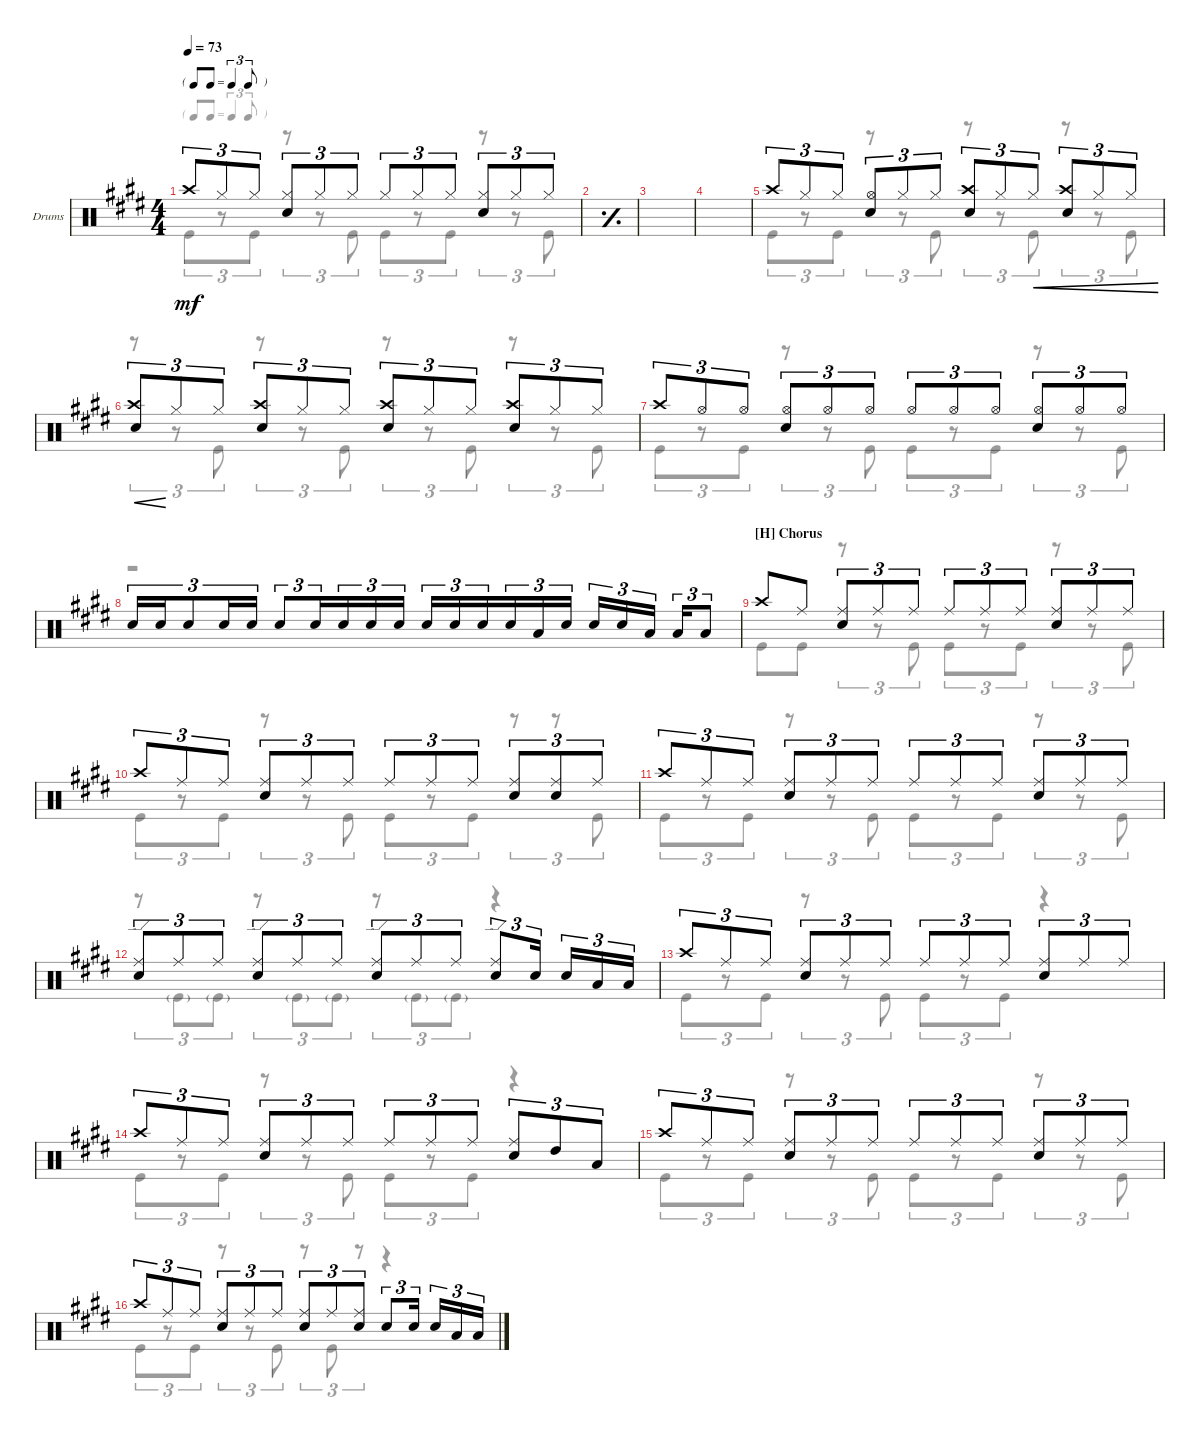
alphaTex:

\defaultSystemsLayout 4
\bracketExtendMode groupsimilarinstruments
\firstSystemTrackNameOrientation horizontal
\otherSystemsTrackNameOrientation horizontal
\track ("Drumkit" "Drums") {instrument percussion}
\staff {score}
\articulation defaults
\voice
\ts (4 4)
\tf triplet8th
\tempo 73
\clef neutral
\ks e "Crash high (hit)".8{tu (3 2) dy mf} "Hi-Hat (closed)".8{tu (3 2)} "Hi-Hat (closed)".8{tu (3 2)}
("Hi-Hat (closed)" "Snare (hit) 2").8{tu (3 2)} "Hi-Hat (closed)".8{tu (3 2)} "Hi-Hat (closed)".8{tu (3 2)} "Hi-Hat (closed)".8{tu (3 2)} "Hi-Hat (closed)".8{tu (3 2)} "Hi-Hat (closed)".8{tu (3 2)} ("Hi-Hat (closed)" "Snare (hit) 2").8{tu (3 2)} "Hi-Hat (closed)".8{tu (3 2)} "Hi-Hat (closed)".8{tu (3 2)} |
\simile simple
|
|
|
\simile none "Crash high (hit)".8{tu (3 2)} "Hi-Hat (closed)".8{tu (3 2)} "Hi-Hat (closed)".8{tu (3 2)}
("Hi-Hat (open)" "Snare (hit) 2").8{tu (3 2)} "Hi-Hat (closed)".8{tu (3 2)} "Hi-Hat (closed)".8{tu (3 2)} ("Crash high (hit)" "Snare (hit) 2").8{tu (3 2)} "Hi-Hat (closed)".8{tu (3 2)} "Hi-Hat (closed)".8{tu (3 2) cre} ("Crash high (hit)" "Snare (hit) 2").8{tu (3 2) cre} "Hi-Hat (closed)".8{tu (3 2) cre} "Hi-Hat (closed)".8{tu (3 2) cre} |
("Crash high (hit)" "Snare (hit) 2").8{tu (3 2) cre} "Hi-Hat (closed)".8{tu (3 2)} "Hi-Hat (closed)".8{tu (3 2)} ("Crash high (hit)" "Snare (hit) 2").8{tu (3 2)} "Hi-Hat (closed)".8{tu (3 2)} "Hi-Hat (closed)".8{tu (3 2)} ("Crash high (hit)" "Snare (hit) 2").8{tu (3 2)} "Hi-Hat (closed)".8{tu (3 2)} "Hi-Hat (closed)".8{tu (3 2)} ("Crash high (hit)" "Snare (hit) 2").8{tu (3 2)} "Hi-Hat (closed)".8{tu (3 2)} "Hi-Hat (closed)".8{tu (3 2)} |
"Crash high (hit)".8{tu (3 2)} "Hi-Hat (open)".8{tu (3 2)} "Hi-Hat (open)".8{tu (3 2)} ("Hi-Hat (open)" "Snare (hit) 2").8{tu (3 2)} "Hi-Hat (open)".8{tu (3 2)} "Hi-Hat (open)".8{tu (3 2)} "Hi-Hat (open)".8{tu (3 2)} "Hi-Hat (open)".8{tu (3 2)} "Hi-Hat (open)".8{tu (3 2)} ("Hi-Hat (open)" "Snare (hit) 2").8{tu (3 2)} "Hi-Hat (open)".8{tu (3 2)} "Hi-Hat (open)".8{tu (3 2)} |
"Snare (hit) 2".16{tu (3 2) beam merge} "Snare (hit) 2".16{tu (3 2) beam merge} "Snare (hit) 2".8{tu (3 2) beam merge} "Snare (hit) 2".16{tu (3 2) beam merge} "Snare (hit) 2".16{tu (3 2) beam split} "Snare (hit) 2".8{tu (3 2) beam merge} "Snare (hit) 2".16{tu (3 2) beam merge} "Snare (hit) 2".16{tu (3 2) beam merge} "Snare (hit) 2".16{tu (3 2) beam merge} "Snare (hit) 2".16{tu (3 2)} "Snare (hit) 2".16{tu (3 2) beam merge} "Snare (hit) 2".16{tu (3 2) beam merge} "Snare (hit) 2".16{tu (3 2) beam merge} "Snare (hit) 2".16{tu (3 2) beam merge} "Low Tom (hit)".16{tu (3 2) beam merge} "Snare (hit) 2".16{tu (3 2)} "Snare (hit) 2".16{tu (3 2)} "Snare (hit) 2".16{tu (3 2)} "Low Tom (hit)".16{tu (3 2)} "Low Tom (hit)".16{tu (3 2)} "Low Tom (hit)".8{tu (3 2)} |
\section ("H" "Chorus")
"Crash high (hit)".8 "Ride (middle)".8 ("Ride (middle)" "Snare (hit) 2").8{tu (3 2)} "Ride (middle)".8{tu (3 2)} "Ride (middle)".8{tu (3 2)} "Ride (middle)".8{tu (3 2)} "Ride (middle)".8{tu (3 2)} "Ride (middle)".8{tu (3 2)} ("Ride (middle)" "Snare (hit) 2").8{tu (3 2)} "Ride (middle)".8{tu (3 2)} "Ride (middle)".8{tu (3 2)} |
"Crash high (hit)".8{tu (3 2)} "Ride (middle)".8{tu (3 2)} "Ride (middle)".8{tu (3 2)} ("Ride (middle)" "Snare (hit) 2").8{tu (3 2)} "Ride (middle)".8{tu (3 2)} "Ride (middle)".8{tu (3 2)} "Ride (middle)".8{tu (3 2)} "Ride (middle)".8{tu (3 2)} "Ride (middle)".8{tu (3 2)} ("Ride (middle)" "Snare (hit) 2").8{tu (3 2)} ("Ride (middle)" "Snare (hit) 2").8{tu (3 2)} "Ride (middle)".8{tu (3 2)} |
"Crash high (hit)".8{tu (3 2)} "Ride (middle)".8{tu (3 2)} "Ride (middle)".8{tu (3 2)} ("Ride (middle)" "Snare (hit) 2").8{tu (3 2)} "Ride (middle)".8{tu (3 2)} "Ride (middle)".8{tu (3 2)} "Ride (middle)".8{tu (3 2)} "Ride (middle)".8{tu (3 2)} "Ride (middle)".8{tu (3 2)} ("Ride (middle)" "Snare (hit) 2").8{tu (3 2)} "Ride (middle)".8{tu (3 2)} "Ride (middle)".8{tu (3 2)} |
("Ride (edge)" "Snare (hit) 2").8{tu (3 2)} "Ride (middle)".8{tu (3 2)} "Ride (middle)".8{tu (3 2)} ("Ride (edge)" "Snare (hit) 2").8{tu (3 2)} "Ride (middle)".8{tu (3 2)} "Ride (middle)".8{tu (3 2)} ("Ride (edge)" "Snare (hit) 2").8{tu (3 2)} "Ride (middle)".8{tu (3 2)} "Ride (middle)".8{tu (3 2)} ("Ride (edge)" "Snare (hit) 2").8{tu (3 2)} "Snare (hit) 2".16{tu (3 2)} "Snare (hit) 2".16{tu (3 2)} "Low Tom (hit)".16{tu (3 2)} "Low Tom (hit)".16{tu (3 2)} |
"Crash high (hit)".8{tu (3 2)} "Ride (middle)".8{tu (3 2)} "Ride (middle)".8{tu (3 2)} ("Ride (middle)" "Snare (hit) 2").8{tu (3 2)} "Ride (middle)".8{tu (3 2)} "Ride (middle)".8{tu (3 2)} "Ride (middle)".8{tu (3 2)} "Ride (middle)".8{tu (3 2)} "Ride (middle)".8{tu (3 2)} ("Ride (middle)" "Snare (hit) 2").8{tu (3 2)} "Ride (middle)".8{tu (3 2)} "Ride (middle)".8{tu (3 2)} |
"Crash high (hit)".8{tu (3 2)} "Ride (middle)".8{tu (3 2)} "Ride (middle)".8{tu (3 2)} ("Ride (middle)" "Snare (hit) 2").8{tu (3 2)} "Ride (middle)".8{tu (3 2)} "Ride (middle)".8{tu (3 2)} "Ride (middle)".8{tu (3 2)} "Ride (middle)".8{tu (3 2)} "Ride (middle)".8{tu (3 2)} ("Ride (middle)" "Snare (hit) 2").8{tu (3 2)} "High Tom (hit)".8{tu (3 2)} "Low Tom (hit)".8{tu (3 2)} |
"Crash high (hit)".8{tu (3 2)} "Ride (middle)".8{tu (3 2)} "Ride (middle)".8{tu (3 2)} ("Ride (middle)" "Snare (hit) 2").8{tu (3 2)} "Ride (middle)".8{tu (3 2)} "Ride (middle)".8{tu (3 2)} "Ride (middle)".8{tu (3 2)} "Ride (middle)".8{tu (3 2)} "Ride (middle)".8{tu (3 2)} ("Ride (middle)" "Snare (hit) 2").8{tu (3 2)} "Ride (middle)".8{tu (3 2)} "Ride (middle)".8{tu (3 2)} |
"Crash high (hit)".8{tu (3 2)} "Ride (middle)".8{tu (3 2)} "Ride (middle)".8{tu (3 2)} ("Ride (middle)" "Snare (hit) 2").8{tu (3 2)} "Ride (middle)".8{tu (3 2)} "Ride (middle)".8{tu (3 2)} ("Ride (middle)" "Snare (hit) 2").8{tu (3 2)} "Ride (middle)".8{tu (3 2)} ("Ride (middle)" "Snare (hit) 2").8{tu (3 2)} "Snare (hit) 2".8{tu (3 2)} "Snare (hit) 2".16{tu (3 2)} "Snare (hit) 2".16{tu (3 2)} "Low Tom (hit)".16{tu (3 2)} "Low Tom (hit)".16{tu (3 2)}
\voice
\clef neutral
\ottava regular
\simile none
\ks e "Kick (hit)".8{tu (3 2) dy mf}
r.8{tu (3 2)} "Kick (hit)".8{tu (3 2)} r.8{tu (3 2)} r.8{tu (3 2)} "Kick (hit)".8{tu (3 2)} "Kick (hit)".8{tu (3 2)} r.8{tu (3 2)} "Kick (hit)".8{tu (3 2)} r.8{tu (3 2)} r.8{tu (3 2)} "Kick (hit)".8{tu (3 2)} |
\simile simple
|
|
|
\simile none "Kick (hit)".8{tu (3 2)}
r.8{tu (3 2)} "Kick (hit)".8{tu (3 2)} r.8{tu (3 2)} r.8{tu (3 2)} "Kick (hit)".8{tu (3 2)} r.8{tu (3 2)} r.8{tu (3 2)} "Kick (hit)".8{tu (3 2)} r.8{tu (3 2)} r.8{tu (3 2)} "Kick (hit)".8{tu (3 2)} |
r.8{tu (3 2)} r.8{tu (3 2)} "Kick (hit)".8{tu (3 2)} r.8{tu (3 2)} r.8{tu (3 2)} "Kick (hit)".8{tu (3 2)} r.8{tu (3 2)} r.8{tu (3 2)} "Kick (hit)".8{tu (3 2)} r.8{tu (3 2)} r.8{tu (3 2)} "Kick (hit)".8{tu (3 2)} |
"Kick (hit)".8{tu (3 2)} r.8{tu (3 2)} "Kick (hit)".8{tu (3 2)} r.8{tu (3 2)} r.8{tu (3 2)} "Kick (hit)".8{tu (3 2)} "Kick (hit)".8{tu (3 2)} r.8{tu (3 2)} "Kick (hit)".8{tu (3 2)} r.8{tu (3 2)} r.8{tu (3 2)} "Kick (hit)".8{tu (3 2)} |
r.1 |
"Kick (hit)".8 "Kick (hit)".8 r.8{tu (3 2)} r.8{tu (3 2)} "Kick (hit)".8{tu (3 2)} "Kick (hit)".8{tu (3 2)} r.8{tu (3 2)} "Kick (hit)".8{tu (3 2)} r.8{tu (3 2)} r.8{tu (3 2)} "Kick (hit)".8{tu (3 2)} |
"Kick (hit)".8{tu (3 2)} r.8{tu (3 2)} "Kick (hit)".8{tu (3 2)} r.8{tu (3 2)} r.8{tu (3 2)} "Kick (hit)".8{tu (3 2)} "Kick (hit)".8{tu (3 2)} r.8{tu (3 2)} "Kick (hit)".8{tu (3 2)} r.8{tu (3 2)} r.8{tu (3 2)} "Kick (hit)".8{tu (3 2)} |
"Kick (hit)".8{tu (3 2)} r.8{tu (3 2)} "Kick (hit)".8{tu (3 2)} r.8{tu (3 2)} r.8{tu (3 2)} "Kick (hit)".8{tu (3 2)} "Kick (hit)".8{tu (3 2)} r.8{tu (3 2)} "Kick (hit)".8{tu (3 2)} r.8{tu (3 2)} r.8{tu (3 2)} "Kick (hit)".8{tu (3 2)} |
r.8{tu (3 2)} "Kick (hit)"{g}.8{tu (3 2)} "Kick (hit)"{g}.8{tu (3 2)} r.8{tu (3 2)} "Kick (hit)"{g}.8{tu (3 2)} "Kick (hit)"{g}.8{tu (3 2)} r.8{tu (3 2)} "Kick (hit)"{g}.8{tu (3 2)} "Kick (hit)"{g}.8{tu (3 2)} r.4 |
"Kick (hit)".8{tu (3 2)} r.8{tu (3 2)} "Kick (hit)".8{tu (3 2)} r.8{tu (3 2)} r.8{tu (3 2)} "Kick (hit)".8{tu (3 2)} "Kick (hit)".8{tu (3 2)} r.8{tu (3 2)} "Kick (hit)".8{tu (3 2)} r.4 |
"Kick (hit)".8{tu (3 2)} r.8{tu (3 2)} "Kick (hit)".8{tu (3 2)} r.8{tu (3 2)} r.8{tu (3 2)} "Kick (hit)".8{tu (3 2)} "Kick (hit)".8{tu (3 2)} r.8{tu (3 2)} "Kick (hit)".8{tu (3 2)} r.4 |
"Kick (hit)".8{tu (3 2)} r.8{tu (3 2)} "Kick (hit)".8{tu (3 2)} r.8{tu (3 2)} r.8{tu (3 2)} "Kick (hit)".8{tu (3 2)} "Kick (hit)".8{tu (3 2)} r.8{tu (3 2)} "Kick (hit)".8{tu (3 2)} r.8{tu (3 2)} r.8{tu (3 2)} "Kick (hit)".8{tu (3 2)} |
"Kick (hit)".8{tu (3 2)} r.8{tu (3 2)} "Kick (hit)".8{tu (3 2)} r.8{tu (3 2)} r.8{tu (3 2)} "Kick (hit)".8{tu (3 2)} r.8{tu (3 2)} "Kick (hit)".8{tu (3 2)} r.8{tu (3 2)} r.4
